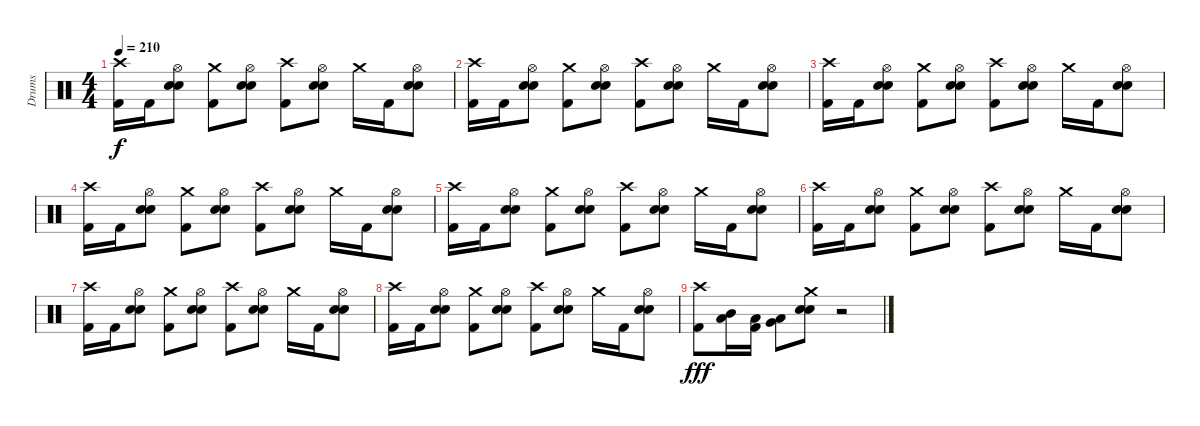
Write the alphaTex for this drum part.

\track ("Drums" "Drums") {instrument percussion}
\staff {score}
\articulation defaults
\ts (4 4)
\tempo 210
\clef neutral
\ks c
("Crash high (hit)" "Kick (hit) 2").16{dy f} "Kick (hit) 2".16 ("Hi-Hat (open)" "Electric Snare (hit)" "Snare (hit) 2").8 ("Crash medium (hit)" "Kick (hit) 2").8 ("Hi-Hat (open)" "Electric Snare (hit)" "Snare (hit) 2").8 ("Crash high (hit)" "Kick (hit) 2").8 ("Hi-Hat (open)" "Electric Snare (hit)" "Snare (hit) 2").8 "Crash medium (hit)".16 "Kick (hit) 2".16 ("Hi-Hat (open)" "Electric Snare (hit)" "Snare (hit) 2").8 |
("Crash high (hit)" "Kick (hit) 2").16 "Kick (hit) 2".16 ("Hi-Hat (open)" "Electric Snare (hit)" "Snare (hit) 2").8 ("Crash medium (hit)" "Kick (hit) 2").8 ("Hi-Hat (open)" "Electric Snare (hit)" "Snare (hit) 2").8 ("Crash high (hit)" "Kick (hit) 2").8 ("Hi-Hat (open)" "Electric Snare (hit)" "Snare (hit) 2").8 "Crash medium (hit)".16 "Kick (hit) 2".16 ("Hi-Hat (open)" "Electric Snare (hit)" "Snare (hit) 2").8 |
("Crash high (hit)" "Kick (hit) 2").16 "Kick (hit) 2".16 ("Hi-Hat (open)" "Electric Snare (hit)" "Snare (hit) 2").8 ("Crash medium (hit)" "Kick (hit) 2").8 ("Hi-Hat (open)" "Electric Snare (hit)" "Snare (hit) 2").8 ("Crash high (hit)" "Kick (hit) 2").8 ("Hi-Hat (open)" "Electric Snare (hit)" "Snare (hit) 2").8 "Crash medium (hit)".16 "Kick (hit) 2".16 ("Hi-Hat (open)" "Electric Snare (hit)" "Snare (hit) 2").8 |
("Crash high (hit)" "Kick (hit) 2").16 "Kick (hit) 2".16 ("Hi-Hat (open)" "Electric Snare (hit)" "Snare (hit) 2").8 ("Crash medium (hit)" "Kick (hit) 2").8 ("Hi-Hat (open)" "Electric Snare (hit)" "Snare (hit) 2").8 ("Crash high (hit)" "Kick (hit) 2").8 ("Hi-Hat (open)" "Electric Snare (hit)" "Snare (hit) 2").8 "Crash medium (hit)".16 "Kick (hit) 2".16 ("Hi-Hat (open)" "Electric Snare (hit)" "Snare (hit) 2").8 |
("Crash high (hit)" "Kick (hit) 2").16 "Kick (hit) 2".16 ("Hi-Hat (open)" "Electric Snare (hit)" "Snare (hit) 2").8 ("Crash medium (hit)" "Kick (hit) 2").8 ("Hi-Hat (open)" "Electric Snare (hit)" "Snare (hit) 2").8 ("Crash high (hit)" "Kick (hit) 2").8 ("Hi-Hat (open)" "Electric Snare (hit)" "Snare (hit) 2").8 "Crash medium (hit)".16 "Kick (hit) 2".16 ("Hi-Hat (open)" "Electric Snare (hit)" "Snare (hit) 2").8 |
("Crash high (hit)" "Kick (hit) 2").16 "Kick (hit) 2".16 ("Hi-Hat (open)" "Electric Snare (hit)" "Snare (hit) 2").8 ("Crash medium (hit)" "Kick (hit) 2").8 ("Hi-Hat (open)" "Electric Snare (hit)" "Snare (hit) 2").8 ("Crash high (hit)" "Kick (hit) 2").8 ("Hi-Hat (open)" "Electric Snare (hit)" "Snare (hit) 2").8 "Crash medium (hit)".16 "Kick (hit) 2".16 ("Hi-Hat (open)" "Electric Snare (hit)" "Snare (hit) 2").8 |
("Crash high (hit)" "Kick (hit) 2").16 "Kick (hit) 2".16 ("Hi-Hat (open)" "Electric Snare (hit)" "Snare (hit) 2").8 ("Crash medium (hit)" "Kick (hit) 2").8 ("Hi-Hat (open)" "Electric Snare (hit)" "Snare (hit) 2").8 ("Crash high (hit)" "Kick (hit) 2").8 ("Hi-Hat (open)" "Electric Snare (hit)" "Snare (hit) 2").8 "Crash medium (hit)".16 "Kick (hit) 2".16 ("Hi-Hat (open)" "Electric Snare (hit)" "Snare (hit) 2").8 |
("Crash high (hit)" "Kick (hit) 2").16 "Kick (hit) 2".16 ("Hi-Hat (open)" "Electric Snare (hit)" "Snare (hit) 2").8 ("Crash medium (hit)" "Kick (hit) 2").8 ("Hi-Hat (open)" "Electric Snare (hit)" "Snare (hit) 2").8 ("Crash high (hit)" "Kick (hit) 2").8 ("Hi-Hat (open)" "Electric Snare (hit)" "Snare (hit) 2").8 "Crash medium (hit)".16 "Kick (hit) 2".16 ("Hi-Hat (open)" "Electric Snare (hit)" "Snare (hit) 2").8 |
("Crash high (hit)" "Kick (hit) 2").8{dy fff} ("Low Tom (hit)" "Mid Tom (hit)").16 ("Low Tom (hit)" "Kick (hit) 2").16 ("Very Low Tom (hit)" "Low Tom (hit)").8 ("Crash medium (hit)" "Snare (hit) 2" "Electric Snare (hit)").8 r.2
